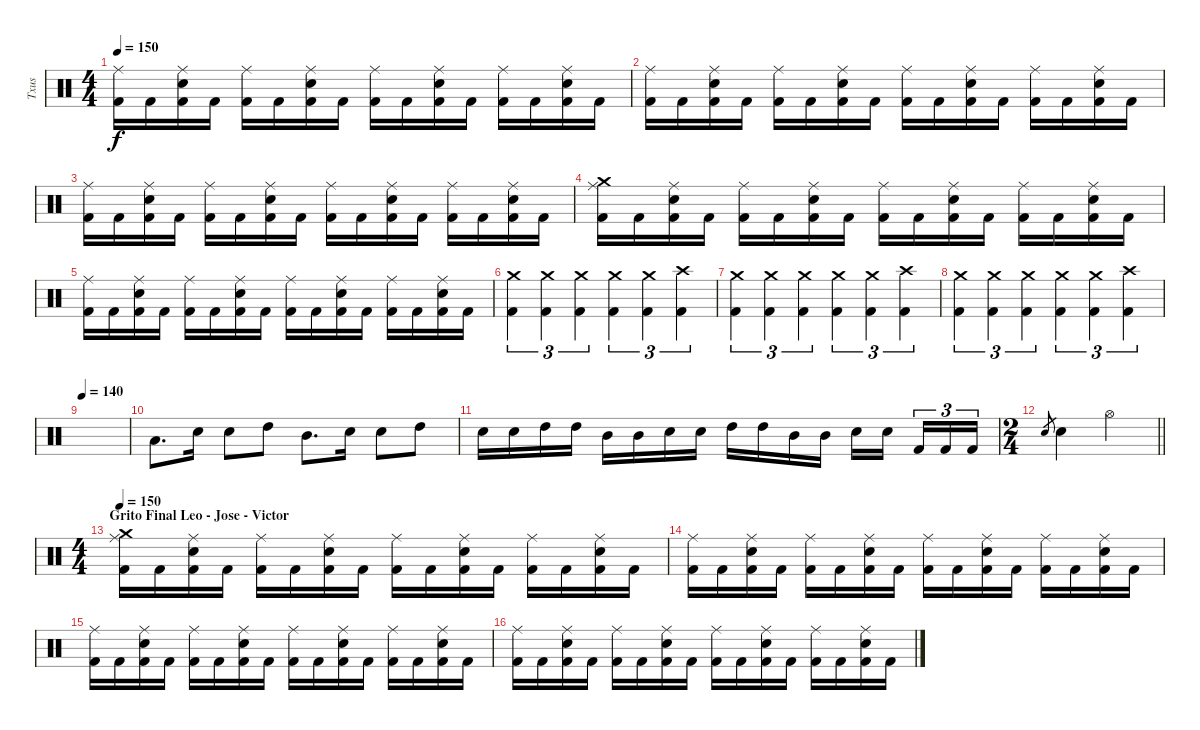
\track ("Txus" "Txus") {instrument percussion}
\staff {score}
\articulation defaults
\ts (4 4)
\tempo 150
\clef neutral
\ks c
("Ride (middle)" "Kick (hit) 2").16{dy f} "Kick (hit) 2".16 ("Ride (middle)" "Electric Snare (hit)" "Kick (hit) 2").16 "Kick (hit) 2".16 ("Ride (middle)" "Kick (hit) 2").16 "Kick (hit) 2".16 ("Ride (middle)" "Electric Snare (hit)" "Kick (hit) 2").16 "Kick (hit) 2".16 ("Ride (middle)" "Kick (hit) 2").16 "Kick (hit) 2".16 ("Ride (middle)" "Electric Snare (hit)" "Kick (hit) 2").16 "Kick (hit) 2".16 ("Ride (middle)" "Kick (hit) 2").16 "Kick (hit) 2".16 ("Ride (middle)" "Electric Snare (hit)" "Kick (hit) 2").16 "Kick (hit) 2".16 |
("Ride (middle)" "Kick (hit) 2").16 "Kick (hit) 2".16 ("Ride (middle)" "Electric Snare (hit)" "Kick (hit) 2").16 "Kick (hit) 2".16 ("Ride (middle)" "Kick (hit) 2").16 "Kick (hit) 2".16 ("Ride (middle)" "Electric Snare (hit)" "Kick (hit) 2").16 "Kick (hit) 2".16 ("Ride (middle)" "Kick (hit) 2").16 "Kick (hit) 2".16 ("Ride (middle)" "Electric Snare (hit)" "Kick (hit) 2").16 "Kick (hit) 2".16 ("Ride (middle)" "Kick (hit) 2").16 "Kick (hit) 2".16 ("Ride (middle)" "Electric Snare (hit)" "Kick (hit) 2").16 "Kick (hit) 2".16 |
("Ride (middle)" "Kick (hit) 2").16 "Kick (hit) 2".16 ("Ride (middle)" "Electric Snare (hit)" "Kick (hit) 2").16 "Kick (hit) 2".16 ("Ride (middle)" "Kick (hit) 2").16 "Kick (hit) 2".16 ("Ride (middle)" "Electric Snare (hit)" "Kick (hit) 2").16 "Kick (hit) 2".16 ("Ride (middle)" "Kick (hit) 2").16 "Kick (hit) 2".16 ("Ride (middle)" "Electric Snare (hit)" "Kick (hit) 2").16 "Kick (hit) 2".16 ("Ride (middle)" "Kick (hit) 2").16 "Kick (hit) 2".16 ("Ride (middle)" "Electric Snare (hit)" "Kick (hit) 2").16 "Kick (hit) 2".16 |
("Crash medium (hit)" "Ride (middle)" "Kick (hit) 2").16 "Kick (hit) 2".16 ("Ride (middle)" "Electric Snare (hit)" "Kick (hit) 2").16 "Kick (hit) 2".16 ("Ride (middle)" "Kick (hit) 2").16 "Kick (hit) 2".16 ("Ride (middle)" "Electric Snare (hit)" "Kick (hit) 2").16 "Kick (hit) 2".16 ("Ride (middle)" "Kick (hit) 2").16 "Kick (hit) 2".16 ("Ride (middle)" "Electric Snare (hit)" "Kick (hit) 2").16 "Kick (hit) 2".16 ("Ride (middle)" "Kick (hit) 2").16 "Kick (hit) 2".16 ("Ride (middle)" "Electric Snare (hit)" "Kick (hit) 2").16 "Kick (hit) 2".16 |
("Ride (middle)" "Kick (hit) 2").16 "Kick (hit) 2".16 ("Ride (middle)" "Electric Snare (hit)" "Kick (hit) 2").16 "Kick (hit) 2".16 ("Ride (middle)" "Kick (hit) 2").16 "Kick (hit) 2".16 ("Ride (middle)" "Electric Snare (hit)" "Kick (hit) 2").16 "Kick (hit) 2".16 ("Ride (middle)" "Kick (hit) 2").16 "Kick (hit) 2".16 ("Ride (middle)" "Electric Snare (hit)" "Kick (hit) 2").16 "Kick (hit) 2".16 ("Ride (middle)" "Kick (hit) 2").16 "Kick (hit) 2".16 ("Ride (middle)" "Electric Snare (hit)" "Kick (hit) 2").16 "Kick (hit) 2".16 |
("Crash medium (hit)" "Kick (hit) 2").4{tu (3 2)} ("Crash medium (hit)" "Kick (hit) 2").4{tu (3 2)} ("Crash medium (hit)" "Kick (hit) 2").4{tu (3 2)} ("Crash medium (hit)" "Kick (hit) 2").4{tu (3 2)} ("Crash medium (hit)" "Kick (hit) 2").4{tu (3 2)} ("Crash high (hit)" "Kick (hit) 2").4{tu (3 2)} |
("Crash medium (hit)" "Kick (hit) 2").4{tu (3 2)} ("Crash medium (hit)" "Kick (hit) 2").4{tu (3 2)} ("Crash medium (hit)" "Kick (hit) 2").4{tu (3 2)} ("Crash medium (hit)" "Kick (hit) 2").4{tu (3 2)} ("Crash medium (hit)" "Kick (hit) 2").4{tu (3 2)} ("Crash high (hit)" "Kick (hit) 2").4{tu (3 2)} |
("Crash medium (hit)" "Kick (hit) 2").4{tu (3 2)} ("Crash medium (hit)" "Kick (hit) 2").4{tu (3 2)} ("Crash medium (hit)" "Kick (hit) 2").4{tu (3 2)} ("Crash medium (hit)" "Kick (hit) 2").4{tu (3 2)} ("Crash medium (hit)" "Kick (hit) 2").4{tu (3 2)} ("Crash high (hit)" "Kick (hit) 2").4{tu (3 2)} |
\tempo 140
|
"Low Tom (hit)".8{d} "Electric Snare (hit)".16 "Electric Snare (hit)".8 "High Tom (hit)".8 "Mid Tom (hit)".8{d} "Electric Snare (hit)".16 "Electric Snare (hit)".8 "High Tom (hit)".8 |
"Electric Snare (hit)".16 "Electric Snare (hit)".16 "High Tom (hit)".16 "High Tom (hit)".16 "Mid Tom (hit)".16 "Mid Tom (hit)".16 "Electric Snare (hit)".16 "Electric Snare (hit)".16 "High Tom (hit)".16 "High Tom (hit)".16 "Mid Tom (hit)".16 "Mid Tom (hit)".16 "Electric Snare (hit)".16 "Electric Snare (hit)".16 "Kick (hit) 2".16{tu (3 2)} "Kick (hit) 2".16{tu (3 2)} "Kick (hit) 2".16{tu (3 2)} |
\ts (2 4)
\barLineRight lightlight "Electric Snare (hit)".8{gr} "Electric Snare (hit)".4 "Hi-Hat (open)".4
|
\ts (4 4)
\section ("" "Grito Final Leo - Jose - Victor")
\tempo 150
("Crash medium (hit)" "Ride (middle)" "Kick (hit) 2").16 "Kick (hit) 2".16 ("Ride (middle)" "Electric Snare (hit)" "Kick (hit) 2").16 "Kick (hit) 2".16 ("Ride (middle)" "Kick (hit) 2").16 "Kick (hit) 2".16 ("Ride (middle)" "Electric Snare (hit)" "Kick (hit) 2").16 "Kick (hit) 2".16 ("Ride (middle)" "Kick (hit) 2").16 "Kick (hit) 2".16 ("Ride (middle)" "Electric Snare (hit)" "Kick (hit) 2").16 "Kick (hit) 2".16 ("Ride (middle)" "Kick (hit) 2").16 "Kick (hit) 2".16 ("Ride (middle)" "Electric Snare (hit)" "Kick (hit) 2").16 "Kick (hit) 2".16 |
("Ride (middle)" "Kick (hit) 2").16 "Kick (hit) 2".16 ("Ride (middle)" "Electric Snare (hit)" "Kick (hit) 2").16 "Kick (hit) 2".16 ("Ride (middle)" "Kick (hit) 2").16 "Kick (hit) 2".16 ("Ride (middle)" "Electric Snare (hit)" "Kick (hit) 2").16 "Kick (hit) 2".16 ("Ride (middle)" "Kick (hit) 2").16 "Kick (hit) 2".16 ("Ride (middle)" "Electric Snare (hit)" "Kick (hit) 2").16 "Kick (hit) 2".16 ("Ride (middle)" "Kick (hit) 2").16 "Kick (hit) 2".16 ("Ride (middle)" "Electric Snare (hit)" "Kick (hit) 2").16 "Kick (hit) 2".16 |
("Ride (middle)" "Kick (hit) 2").16 "Kick (hit) 2".16 ("Ride (middle)" "Electric Snare (hit)" "Kick (hit) 2").16 "Kick (hit) 2".16 ("Ride (middle)" "Kick (hit) 2").16 "Kick (hit) 2".16 ("Ride (middle)" "Electric Snare (hit)" "Kick (hit) 2").16 "Kick (hit) 2".16 ("Ride (middle)" "Kick (hit) 2").16 "Kick (hit) 2".16 ("Ride (middle)" "Electric Snare (hit)" "Kick (hit) 2").16 "Kick (hit) 2".16 ("Ride (middle)" "Kick (hit) 2").16 "Kick (hit) 2".16 ("Ride (middle)" "Electric Snare (hit)" "Kick (hit) 2").16 "Kick (hit) 2".16 |
("Ride (middle)" "Kick (hit) 2").16 "Kick (hit) 2".16 ("Ride (middle)" "Electric Snare (hit)" "Kick (hit) 2").16 "Kick (hit) 2".16 ("Ride (middle)" "Kick (hit) 2").16 "Kick (hit) 2".16 ("Ride (middle)" "Electric Snare (hit)" "Kick (hit) 2").16 "Kick (hit) 2".16 ("Ride (middle)" "Kick (hit) 2").16 "Kick (hit) 2".16 ("Ride (middle)" "Electric Snare (hit)" "Kick (hit) 2").16 "Kick (hit) 2".16 ("Ride (middle)" "Kick (hit) 2").16 "Kick (hit) 2".16 ("Ride (middle)" "Electric Snare (hit)" "Kick (hit) 2").16 "Kick (hit) 2".16
